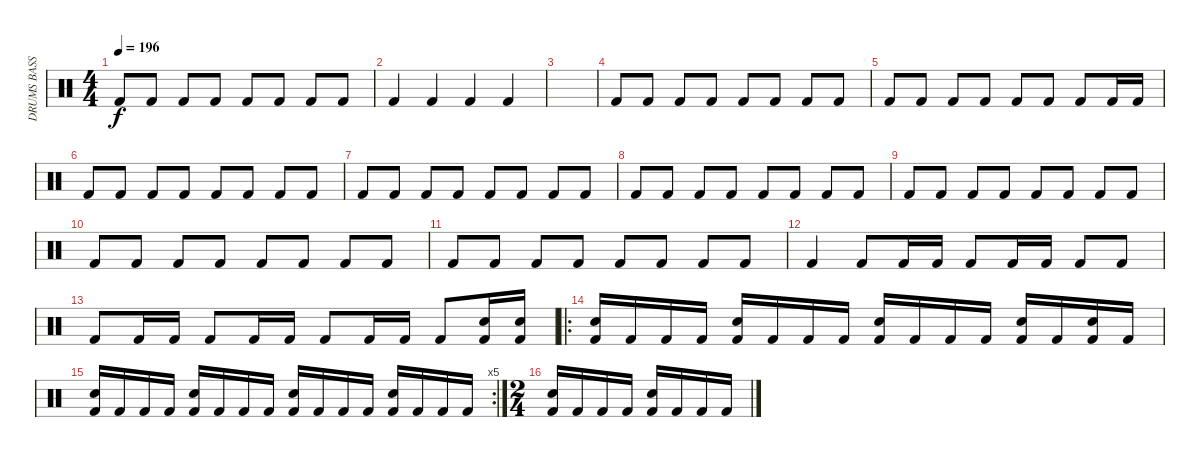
\track ("DRUMS BASS" "DRUMS BASS") {instrument percussion}
\staff {score}
\articulation defaults
\ts (4 4)
\tempo 196
\clef neutral
\ks c "Kick (hit) 2".8{dy f} "Kick (hit) 2".8 "Kick (hit) 2".8 "Kick (hit) 2".8 "Kick (hit) 2".8 "Kick (hit) 2".8 "Kick (hit) 2".8 "Kick (hit) 2".8
|
"Kick (hit) 2".4 "Kick (hit) 2".4 "Kick (hit) 2".4 "Kick (hit) 2".4 |
|
"Kick (hit) 2".8 "Kick (hit) 2".8 "Kick (hit) 2".8 "Kick (hit) 2".8 "Kick (hit) 2".8 "Kick (hit) 2".8 "Kick (hit) 2".8 "Kick (hit) 2".8 |
"Kick (hit) 2".8 "Kick (hit) 2".8 "Kick (hit) 2".8 "Kick (hit) 2".8 "Kick (hit) 2".8 "Kick (hit) 2".8 "Kick (hit) 2".8 "Kick (hit) 2".16 "Kick (hit) 2".16 |
"Kick (hit) 2".8 "Kick (hit) 2".8 "Kick (hit) 2".8 "Kick (hit) 2".8 "Kick (hit) 2".8 "Kick (hit) 2".8 "Kick (hit) 2".8 "Kick (hit) 2".8 |
"Kick (hit) 2".8 "Kick (hit) 2".8 "Kick (hit) 2".8 "Kick (hit) 2".8 "Kick (hit) 2".8 "Kick (hit) 2".8 "Kick (hit) 2".8 "Kick (hit) 2".8 |
"Kick (hit) 2".8 "Kick (hit) 2".8 "Kick (hit) 2".8 "Kick (hit) 2".8 "Kick (hit) 2".8 "Kick (hit) 2".8 "Kick (hit) 2".8 "Kick (hit) 2".8 |
"Kick (hit) 2".8 "Kick (hit) 2".8 "Kick (hit) 2".8 "Kick (hit) 2".8 "Kick (hit) 2".8 "Kick (hit) 2".8 "Kick (hit) 2".8 "Kick (hit) 2".8 |
"Kick (hit) 2".8 "Kick (hit) 2".8 "Kick (hit) 2".8 "Kick (hit) 2".8 "Kick (hit) 2".8 "Kick (hit) 2".8 "Kick (hit) 2".8 "Kick (hit) 2".8 |
"Kick (hit) 2".8 "Kick (hit) 2".8 "Kick (hit) 2".8 "Kick (hit) 2".8 "Kick (hit) 2".8 "Kick (hit) 2".8 "Kick (hit) 2".8 "Kick (hit) 2".8 |
"Kick (hit) 2".4 "Kick (hit) 2".8 "Kick (hit) 2".16 "Kick (hit) 2".16 "Kick (hit) 2".8 "Kick (hit) 2".16 "Kick (hit) 2".16 "Kick (hit) 2".8 "Kick (hit) 2".8 |
"Kick (hit) 2".8 "Kick (hit) 2".16 "Kick (hit) 2".16 "Kick (hit) 2".8 "Kick (hit) 2".16 "Kick (hit) 2".16 "Kick (hit) 2".8 "Kick (hit) 2".16 "Kick (hit) 2".16 "Kick (hit) 2".8 ("Electric Snare (hit)" "Kick (hit) 2").16 ("Electric Snare (hit)" "Kick (hit) 2").16 |
\ro
("Electric Snare (hit)" "Kick (hit) 2").16 "Kick (hit) 2".16 "Kick (hit) 2".16 "Kick (hit) 2".16 ("Electric Snare (hit)" "Kick (hit) 2").16 "Kick (hit) 2".16 "Kick (hit) 2".16 "Kick (hit) 2".16 ("Electric Snare (hit)" "Kick (hit) 2").16 "Kick (hit) 2".16 "Kick (hit) 2".16 "Kick (hit) 2".16 ("Electric Snare (hit)" "Kick (hit) 2").16 "Kick (hit) 2".16 ("Electric Snare (hit)" "Kick (hit) 2").16 "Kick (hit) 2".16 |
\rc 5
("Electric Snare (hit)" "Kick (hit) 2").16 "Kick (hit) 2".16 "Kick (hit) 2".16 "Kick (hit) 2".16 ("Electric Snare (hit)" "Kick (hit) 2").16 "Kick (hit) 2".16 "Kick (hit) 2".16 "Kick (hit) 2".16 ("Electric Snare (hit)" "Kick (hit) 2").16 "Kick (hit) 2".16 "Kick (hit) 2".16 "Kick (hit) 2".16 ("Electric Snare (hit)" "Kick (hit) 2").16 "Kick (hit) 2".16 "Kick (hit) 2".16 "Kick (hit) 2".16 |
\ts (2 4)
("Electric Snare (hit)" "Kick (hit) 2").16 "Kick (hit) 2".16 "Kick (hit) 2".16 "Kick (hit) 2".16 ("Electric Snare (hit)" "Kick (hit) 2").16 "Kick (hit) 2".16 "Kick (hit) 2".16 "Kick (hit) 2".16
